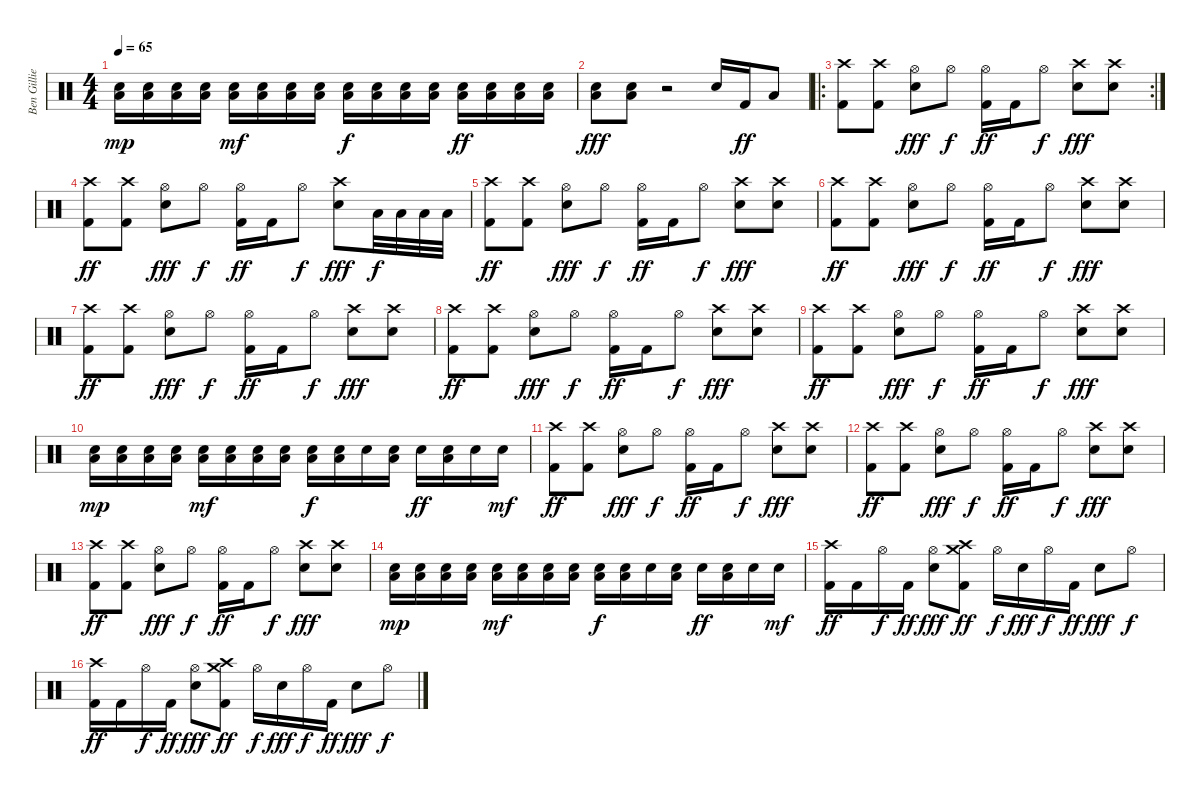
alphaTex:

\track ("Ben Gillies" "Ben Gillie") {instrument percussion}
\staff {score}
\articulation defaults
\ts (4 4)
\tempo 65
\clef neutral
\ks c
("Low Floor Tom (hit)" "Electric Snare (hit)").16{dy mp} ("Low Floor Tom (hit)" "Electric Snare (hit)").16 ("Low Floor Tom (hit)" "Electric Snare (hit)").16 ("Low Floor Tom (hit)" "Electric Snare (hit)").16 ("Low Floor Tom (hit)" "Electric Snare (hit)").16{dy mf} ("Low Floor Tom (hit)" "Electric Snare (hit)").16 ("Low Floor Tom (hit)" "Electric Snare (hit)").16 ("Low Floor Tom (hit)" "Electric Snare (hit)").16 ("Low Floor Tom (hit)" "Electric Snare (hit)").16{dy f} ("Low Floor Tom (hit)" "Electric Snare (hit)").16 ("Low Floor Tom (hit)" "Electric Snare (hit)").16 ("Low Floor Tom (hit)" "Electric Snare (hit)").16 ("Low Floor Tom (hit)" "Electric Snare (hit)").16{dy ff} ("Low Floor Tom (hit)" "Electric Snare (hit)").16 ("Low Floor Tom (hit)" "Electric Snare (hit)").16 ("Low Floor Tom (hit)" "Electric Snare (hit)").16 |
("Low Floor Tom (hit)" "Electric Snare (hit)").8{dy fff} ("Low Floor Tom (hit)" "Electric Snare (hit)").8 r.2 "Electric Snare (hit)".16 "Kick (hit) 2".16{dy ff} "Low Floor Tom (hit)".8 |
\ro
\rc 2
("Crash high (hit)" "Kick (hit) 2").8 ("Crash high (hit)" "Kick (hit) 2").8 ("Hi-Hat (open)" "Electric Snare (hit)").8{dy fff} "Hi-Hat (open)".8{dy f} ("Hi-Hat (open)" "Kick (hit) 2").16{dy ff} "Kick (hit) 2".16 "Hi-Hat (open)".8{dy f} ("Crash high (hit)" "Electric Snare (hit)").8{dy fff} ("Crash high (hit)" "Electric Snare (hit)").8 |
("Crash high (hit)" "Kick (hit) 2").8{dy ff} ("Crash high (hit)" "Kick (hit) 2").8 ("Hi-Hat (open)" "Electric Snare (hit)").8{dy fff} "Hi-Hat (open)".8{dy f} ("Hi-Hat (open)" "Kick (hit) 2").16{dy ff} "Kick (hit) 2".16 "Hi-Hat (open)".8{dy f} ("Crash high (hit)" "Electric Snare (hit)").8{dy fff} "Low Tom (hit)".32{dy f} "Low Tom (hit)".32 "Low Floor Tom (hit)".32 "Low Floor Tom (hit)".32 |
("Crash high (hit)" "Kick (hit) 2").8{dy ff} ("Crash high (hit)" "Kick (hit) 2").8 ("Hi-Hat (open)" "Electric Snare (hit)").8{dy fff} "Hi-Hat (open)".8{dy f} ("Hi-Hat (open)" "Kick (hit) 2").16{dy ff} "Kick (hit) 2".16 "Hi-Hat (open)".8{dy f} ("Crash high (hit)" "Electric Snare (hit)").8{dy fff} ("Crash high (hit)" "Electric Snare (hit)").8 |
("Crash high (hit)" "Kick (hit) 2").8{dy ff} ("Crash high (hit)" "Kick (hit) 2").8 ("Hi-Hat (open)" "Electric Snare (hit)").8{dy fff} "Hi-Hat (open)".8{dy f} ("Hi-Hat (open)" "Kick (hit) 2").16{dy ff} "Kick (hit) 2".16 "Hi-Hat (open)".8{dy f} ("Crash high (hit)" "Electric Snare (hit)").8{dy fff} ("Crash high (hit)" "Electric Snare (hit)").8 |
("Crash high (hit)" "Kick (hit) 2").8{dy ff} ("Crash high (hit)" "Kick (hit) 2").8 ("Hi-Hat (open)" "Electric Snare (hit)").8{dy fff} "Hi-Hat (open)".8{dy f} ("Hi-Hat (open)" "Kick (hit) 2").16{dy ff} "Kick (hit) 2".16 "Hi-Hat (open)".8{dy f} ("Crash high (hit)" "Electric Snare (hit)").8{dy fff} ("Crash high (hit)" "Electric Snare (hit)").8 |
("Crash high (hit)" "Kick (hit) 2").8{dy ff} ("Crash high (hit)" "Kick (hit) 2").8 ("Hi-Hat (open)" "Electric Snare (hit)").8{dy fff} "Hi-Hat (open)".8{dy f} ("Hi-Hat (open)" "Kick (hit) 2").16{dy ff} "Kick (hit) 2".16 "Hi-Hat (open)".8{dy f} ("Crash high (hit)" "Electric Snare (hit)").8{dy fff} ("Crash high (hit)" "Electric Snare (hit)").8 |
("Crash high (hit)" "Kick (hit) 2").8{dy ff} ("Crash high (hit)" "Kick (hit) 2").8 ("Hi-Hat (open)" "Electric Snare (hit)").8{dy fff} "Hi-Hat (open)".8{dy f} ("Hi-Hat (open)" "Kick (hit) 2").16{dy ff} "Kick (hit) 2".16 "Hi-Hat (open)".8{dy f} ("Crash high (hit)" "Electric Snare (hit)").8{dy fff} ("Crash high (hit)" "Electric Snare (hit)").8 |
("Low Floor Tom (hit)" "Electric Snare (hit)").16{dy mp} ("Low Floor Tom (hit)" "Electric Snare (hit)").16 ("Low Floor Tom (hit)" "Electric Snare (hit)").16 ("Low Floor Tom (hit)" "Electric Snare (hit)").16 ("Low Floor Tom (hit)" "Electric Snare (hit)").16{dy mf} ("Low Floor Tom (hit)" "Electric Snare (hit)").16 ("Low Floor Tom (hit)" "Electric Snare (hit)").16 ("Low Floor Tom (hit)" "Electric Snare (hit)").16 ("Low Floor Tom (hit)" "Electric Snare (hit)").16{dy f} ("Low Floor Tom (hit)" "Electric Snare (hit)").16 "Electric Snare (hit)".16 ("Low Floor Tom (hit)" "Electric Snare (hit)").16 "Electric Snare (hit)".16{dy ff} ("Low Floor Tom (hit)" "Electric Snare (hit)").16 "Electric Snare (hit)".16 "Electric Snare (hit)".16{dy mf} |
("Crash high (hit)" "Kick (hit) 2").8{dy ff} ("Crash high (hit)" "Kick (hit) 2").8 ("Hi-Hat (open)" "Electric Snare (hit)").8{dy fff} "Hi-Hat (open)".8{dy f} ("Hi-Hat (open)" "Kick (hit) 2").16{dy ff} "Kick (hit) 2".16 "Hi-Hat (open)".8{dy f} ("Crash high (hit)" "Electric Snare (hit)").8{dy fff} ("Crash high (hit)" "Electric Snare (hit)").8 |
("Crash high (hit)" "Kick (hit) 2").8{dy ff} ("Crash high (hit)" "Kick (hit) 2").8 ("Hi-Hat (open)" "Electric Snare (hit)").8{dy fff} "Hi-Hat (open)".8{dy f} ("Hi-Hat (open)" "Kick (hit) 2").16{dy ff} "Kick (hit) 2".16 "Hi-Hat (open)".8{dy f} ("Crash high (hit)" "Electric Snare (hit)").8{dy fff} ("Crash high (hit)" "Electric Snare (hit)").8 |
("Crash high (hit)" "Kick (hit) 2").8{dy ff} ("Crash high (hit)" "Kick (hit) 2").8 ("Hi-Hat (open)" "Electric Snare (hit)").8{dy fff} "Hi-Hat (open)".8{dy f} ("Hi-Hat (open)" "Kick (hit) 2").16{dy ff} "Kick (hit) 2".16 "Hi-Hat (open)".8{dy f} ("Crash high (hit)" "Electric Snare (hit)").8{dy fff} ("Crash high (hit)" "Electric Snare (hit)").8 |
("Low Floor Tom (hit)" "Electric Snare (hit)").16{dy mp} ("Low Floor Tom (hit)" "Electric Snare (hit)").16 ("Low Floor Tom (hit)" "Electric Snare (hit)").16 ("Low Floor Tom (hit)" "Electric Snare (hit)").16 ("Low Floor Tom (hit)" "Electric Snare (hit)").16{dy mf} ("Low Floor Tom (hit)" "Electric Snare (hit)").16 ("Low Floor Tom (hit)" "Electric Snare (hit)").16 ("Low Floor Tom (hit)" "Electric Snare (hit)").16 ("Low Floor Tom (hit)" "Electric Snare (hit)").16{dy f} ("Low Floor Tom (hit)" "Electric Snare (hit)").16 "Electric Snare (hit)".16 ("Low Floor Tom (hit)" "Electric Snare (hit)").16 "Electric Snare (hit)".16{dy ff} ("Low Floor Tom (hit)" "Electric Snare (hit)").16 "Electric Snare (hit)".16 "Electric Snare (hit)".16{dy mf} |
("Crash high (hit)" "Kick (hit) 2").16{dy ff} "Kick (hit) 2".16 "Hi-Hat (open)".16{dy f} "Kick (hit) 2".16{dy ff} ("Hi-Hat (open)" "Electric Snare (hit)").8{dy fff} ("Crash high (hit)" "Crash medium (hit)" "Kick (hit) 2").8{dy ff} "Hi-Hat (open)".16{dy f} "Electric Snare (hit)".16{dy fff} "Hi-Hat (open)".16{dy f} "Kick (hit) 2".16{dy ff} "Electric Snare (hit)".8{dy fff} "Hi-Hat (open)".8{dy f} |
("Crash high (hit)" "Kick (hit) 2").16{dy ff} "Kick (hit) 2".16 "Hi-Hat (open)".16{dy f} "Kick (hit) 2".16{dy ff} ("Hi-Hat (open)" "Electric Snare (hit)").8{dy fff} ("Crash high (hit)" "Crash medium (hit)" "Kick (hit) 2").8{dy ff} "Hi-Hat (open)".16{dy f} "Electric Snare (hit)".16{dy fff} "Hi-Hat (open)".16{dy f} "Kick (hit) 2".16{dy ff} "Electric Snare (hit)".8{dy fff} "Hi-Hat (open)".8{dy f}
